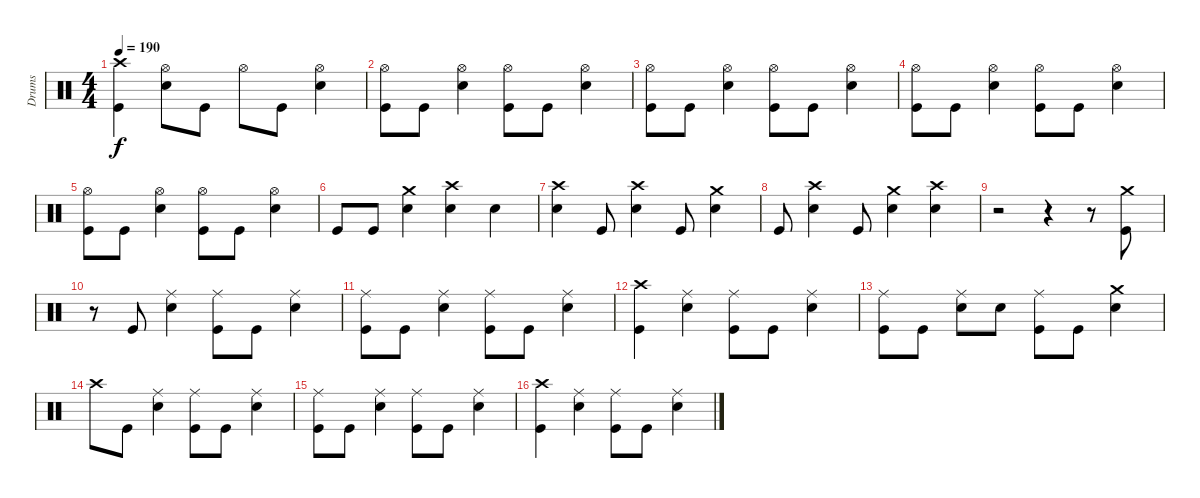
\track ("Drums" "Drums") {instrument percussion}
\staff {score}
\articulation defaults
\ts (4 4)
\tempo 190
\clef neutral
\ks c
("Kick (hit)" "Crash high (hit)").4{dy f} ("Electric Snare (hit)" "Hi-Hat (open)").8 "Kick (hit)".8 "Hi-Hat (open)".8 "Kick (hit)".8 ("Electric Snare (hit)" "Hi-Hat (open)").4 |
("Kick (hit)" "Hi-Hat (open)").8 "Kick (hit)".8 ("Electric Snare (hit)" "Hi-Hat (open)").4 ("Kick (hit)" "Hi-Hat (open)").8 "Kick (hit)".8 ("Electric Snare (hit)" "Hi-Hat (open)").4 |
("Kick (hit)" "Hi-Hat (open)").8 "Kick (hit)".8 ("Electric Snare (hit)" "Hi-Hat (open)").4 ("Kick (hit)" "Hi-Hat (open)").8 "Kick (hit)".8 ("Electric Snare (hit)" "Hi-Hat (open)").4 |
("Kick (hit)" "Hi-Hat (open)").8 "Kick (hit)".8 ("Electric Snare (hit)" "Hi-Hat (open)").4 ("Kick (hit)" "Hi-Hat (open)").8 "Kick (hit)".8 ("Electric Snare (hit)" "Hi-Hat (open)").4 |
("Kick (hit)" "Hi-Hat (open)").8 "Kick (hit)".8 ("Electric Snare (hit)" "Hi-Hat (open)").4 ("Kick (hit)" "Hi-Hat (open)").8 "Kick (hit)".8 ("Electric Snare (hit)" "Hi-Hat (open)").4 |
"Kick (hit)".8 "Kick (hit)".8 ("Electric Snare (hit)" "Crash medium (hit)").4 ("Electric Snare (hit)" "Crash high (hit)").4 "Electric Snare (hit)".4 |
("Crash high (hit)" "Electric Snare (hit)").4 "Kick (hit)".8 ("Electric Snare (hit)" "Crash high (hit)").4 "Kick (hit)".8 ("Electric Snare (hit)" "Crash medium (hit)").4 |
"Kick (hit)".8 ("Electric Snare (hit)" "Crash high (hit)").4 "Kick (hit)".8 ("Electric Snare (hit)" "Crash medium (hit)").4 ("Electric Snare (hit)" "Crash high (hit)").4 |
r.2 r.4 r.8 ("Kick (hit)" "Crash medium (hit)").8 |
r.8 "Kick (hit)".8 ("Electric Snare (hit)" "Ride (middle)").4 ("Kick (hit)" "Ride (middle)").8 "Kick (hit)".8 ("Electric Snare (hit)" "Ride (middle)").4 |
("Kick (hit)" "Ride (middle)").8 "Kick (hit)".8 ("Electric Snare (hit)" "Ride (middle)").4 ("Kick (hit)" "Ride (middle)").8 "Kick (hit)".8 ("Electric Snare (hit)" "Ride (middle)").4 |
("Crash high (hit)" "Kick (hit)").4 ("Electric Snare (hit)" "Ride (middle)").4 ("Kick (hit)" "Ride (middle)").8 "Kick (hit)".8 ("Electric Snare (hit)" "Ride (middle)").4 |
("Kick (hit)" "Ride (middle)").8 "Kick (hit)".8 ("Electric Snare (hit)" "Ride (middle)").8 "Electric Snare (hit)".8 ("Kick (hit)" "Ride (middle)").8 "Kick (hit)".8 ("Electric Snare (hit)" "Crash medium (hit)").4 |
"Crash high (hit)".8 "Kick (hit)".8 ("Electric Snare (hit)" "Ride (middle)").4 ("Kick (hit)" "Ride (middle)").8 "Kick (hit)".8 ("Electric Snare (hit)" "Ride (middle)").4 |
("Kick (hit)" "Ride (middle)").8 "Kick (hit)".8 ("Electric Snare (hit)" "Ride (middle)").4 ("Kick (hit)" "Ride (middle)").8 "Kick (hit)".8 ("Electric Snare (hit)" "Ride (middle)").4 |
("Crash high (hit)" "Kick (hit)").4 ("Electric Snare (hit)" "Ride (middle)").4 ("Kick (hit)" "Ride (middle)").8 "Kick (hit)".8 ("Electric Snare (hit)" "Ride (middle)").4
